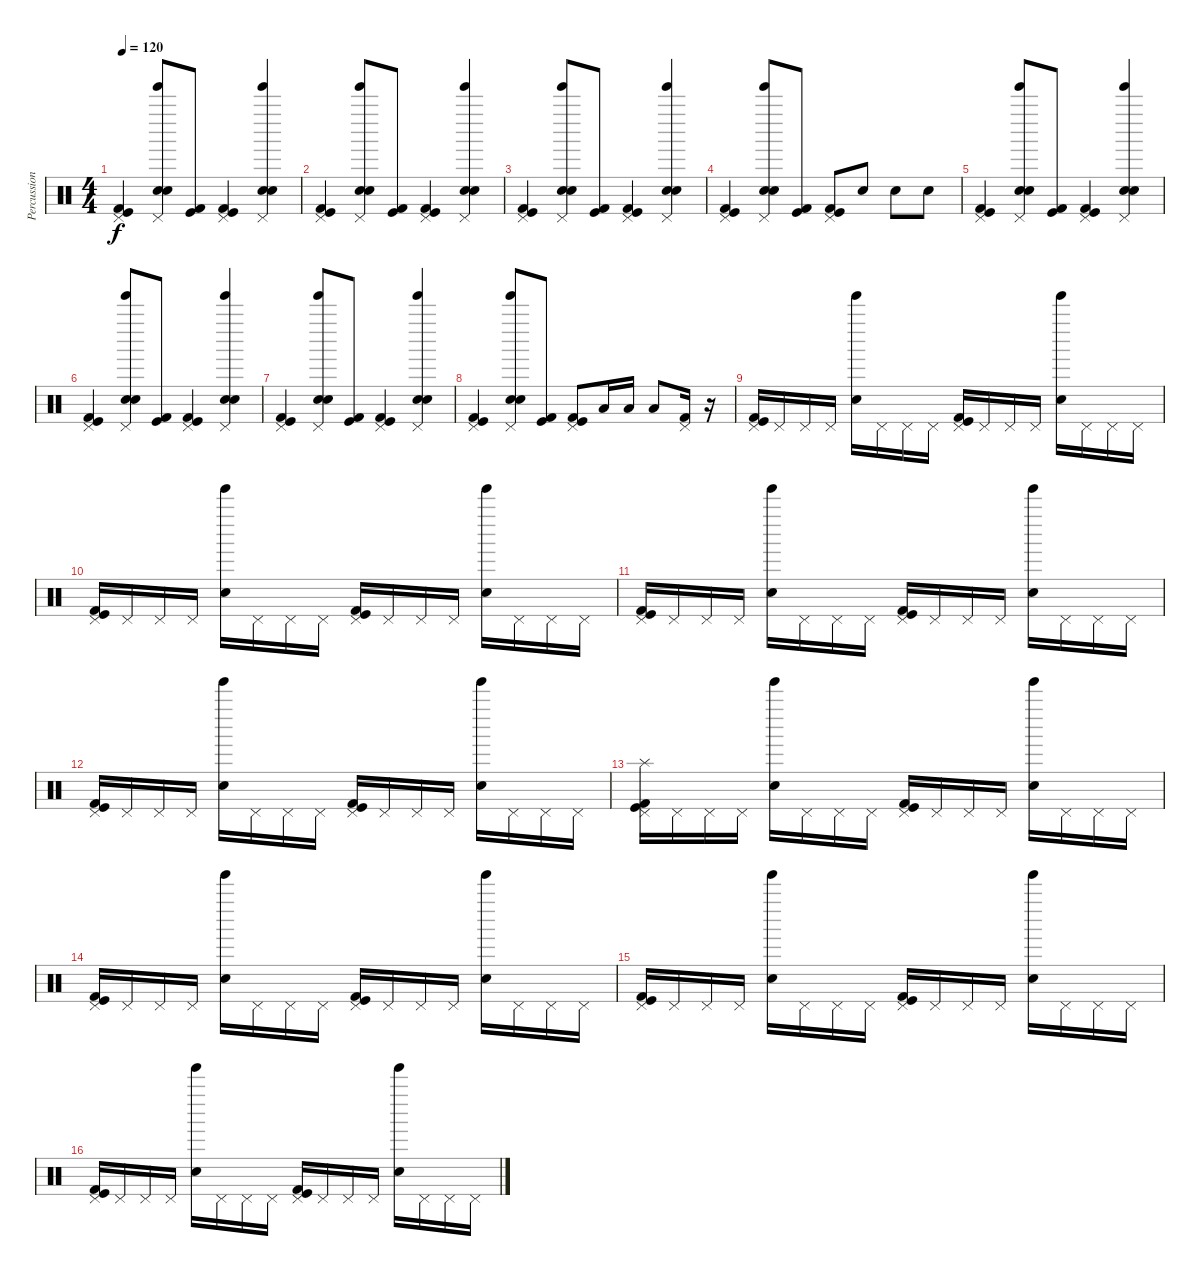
\track ("Percussion" "Percussion") {instrument percussion}
\staff {score}
\articulation defaults
\ts (4 4)
\tempo 120
\clef neutral
\ks c
("Pedal Hi-Hat (hit)" "Kick (hit)" "Kick (hit) 2").4{dy f} ("Tinkle Bell (hit)" "Pedal Hi-Hat (hit)" "Snare (hit) 2" "Electric Snare (hit)").8 ("Kick (hit)" "Kick (hit) 2").8 ("Pedal Hi-Hat (hit)" "Kick (hit)" "Kick (hit) 2").4 ("Tinkle Bell (hit)" "Pedal Hi-Hat (hit)" "Snare (hit) 2" "Electric Snare (hit)").4 |
("Pedal Hi-Hat (hit)" "Kick (hit)" "Kick (hit) 2").4 ("Tinkle Bell (hit)" "Pedal Hi-Hat (hit)" "Snare (hit) 2" "Electric Snare (hit)").8 ("Kick (hit)" "Kick (hit) 2").8 ("Pedal Hi-Hat (hit)" "Kick (hit)" "Kick (hit) 2").4 ("Tinkle Bell (hit)" "Pedal Hi-Hat (hit)" "Snare (hit) 2" "Electric Snare (hit)").4 |
("Pedal Hi-Hat (hit)" "Kick (hit)" "Kick (hit) 2").4 ("Tinkle Bell (hit)" "Pedal Hi-Hat (hit)" "Snare (hit) 2" "Electric Snare (hit)").8 ("Kick (hit)" "Kick (hit) 2").8 ("Pedal Hi-Hat (hit)" "Kick (hit)" "Kick (hit) 2").4 ("Tinkle Bell (hit)" "Pedal Hi-Hat (hit)" "Snare (hit) 2" "Electric Snare (hit)").4 |
("Pedal Hi-Hat (hit)" "Kick (hit)" "Kick (hit) 2").4 ("Tinkle Bell (hit)" "Pedal Hi-Hat (hit)" "Snare (hit) 2" "Electric Snare (hit)").8 ("Kick (hit)" "Kick (hit) 2").8 ("Pedal Hi-Hat (hit)" "Kick (hit)" "Kick (hit) 2").8 "Snare (hit) 2".8 "Snare (hit) 2".8 "Snare (hit) 2".8 |
("Pedal Hi-Hat (hit)" "Kick (hit)" "Kick (hit) 2").4 ("Tinkle Bell (hit)" "Pedal Hi-Hat (hit)" "Snare (hit) 2" "Electric Snare (hit)").8 ("Kick (hit)" "Kick (hit) 2").8 ("Pedal Hi-Hat (hit)" "Kick (hit)" "Kick (hit) 2").4 ("Tinkle Bell (hit)" "Pedal Hi-Hat (hit)" "Snare (hit) 2" "Electric Snare (hit)").4 |
("Pedal Hi-Hat (hit)" "Kick (hit)" "Kick (hit) 2").4 ("Tinkle Bell (hit)" "Pedal Hi-Hat (hit)" "Snare (hit) 2" "Electric Snare (hit)").8 ("Kick (hit)" "Kick (hit) 2").8 ("Pedal Hi-Hat (hit)" "Kick (hit)" "Kick (hit) 2").4 ("Tinkle Bell (hit)" "Pedal Hi-Hat (hit)" "Snare (hit) 2" "Electric Snare (hit)").4 |
("Pedal Hi-Hat (hit)" "Kick (hit)" "Kick (hit) 2").4 ("Tinkle Bell (hit)" "Pedal Hi-Hat (hit)" "Snare (hit) 2" "Electric Snare (hit)").8 ("Kick (hit)" "Kick (hit) 2").8 ("Pedal Hi-Hat (hit)" "Kick (hit)" "Kick (hit) 2").4 ("Tinkle Bell (hit)" "Pedal Hi-Hat (hit)" "Snare (hit) 2" "Electric Snare (hit)").4 |
("Pedal Hi-Hat (hit)" "Kick (hit)" "Kick (hit) 2").4 ("Tinkle Bell (hit)" "Pedal Hi-Hat (hit)" "Snare (hit) 2" "Electric Snare (hit)").8 ("Kick (hit)" "Kick (hit) 2").8 ("Pedal Hi-Hat (hit)" "Kick (hit)" "Kick (hit) 2").8 "Low Tom (hit)".16 "Low Tom (hit)".16 "Low Tom (hit)".8 ("Pedal Hi-Hat (hit)" "Kick (hit) 2").16 r.16 |
("Pedal Hi-Hat (hit)" "Kick (hit)" "Kick (hit) 2").16 "Pedal Hi-Hat (hit)".16 "Pedal Hi-Hat (hit)".16 "Pedal Hi-Hat (hit)".16 ("Tinkle Bell (hit)" "Snare (hit) 2").16 "Pedal Hi-Hat (hit)".16 "Pedal Hi-Hat (hit)".16 "Pedal Hi-Hat (hit)".16 ("Pedal Hi-Hat (hit)" "Kick (hit)" "Kick (hit) 2").16 "Pedal Hi-Hat (hit)".16 "Pedal Hi-Hat (hit)".16 "Pedal Hi-Hat (hit)".16 ("Tinkle Bell (hit)" "Snare (hit) 2").16 "Pedal Hi-Hat (hit)".16 "Pedal Hi-Hat (hit)".16 "Pedal Hi-Hat (hit)".16 |
("Pedal Hi-Hat (hit)" "Kick (hit)" "Kick (hit) 2").16 "Pedal Hi-Hat (hit)".16 "Pedal Hi-Hat (hit)".16 "Pedal Hi-Hat (hit)".16 ("Tinkle Bell (hit)" "Snare (hit) 2").16 "Pedal Hi-Hat (hit)".16 "Pedal Hi-Hat (hit)".16 "Pedal Hi-Hat (hit)".16 ("Pedal Hi-Hat (hit)" "Kick (hit)" "Kick (hit) 2").16 "Pedal Hi-Hat (hit)".16 "Pedal Hi-Hat (hit)".16 "Pedal Hi-Hat (hit)".16 ("Tinkle Bell (hit)" "Snare (hit) 2").16 "Pedal Hi-Hat (hit)".16 "Pedal Hi-Hat (hit)".16 "Pedal Hi-Hat (hit)".16 |
("Pedal Hi-Hat (hit)" "Kick (hit)" "Kick (hit) 2").16 "Pedal Hi-Hat (hit)".16 "Pedal Hi-Hat (hit)".16 "Pedal Hi-Hat (hit)".16 ("Tinkle Bell (hit)" "Snare (hit) 2").16 "Pedal Hi-Hat (hit)".16 "Pedal Hi-Hat (hit)".16 "Pedal Hi-Hat (hit)".16 ("Pedal Hi-Hat (hit)" "Kick (hit)" "Kick (hit) 2").16 "Pedal Hi-Hat (hit)".16 "Pedal Hi-Hat (hit)".16 "Pedal Hi-Hat (hit)".16 ("Tinkle Bell (hit)" "Snare (hit) 2").16 "Pedal Hi-Hat (hit)".16 "Pedal Hi-Hat (hit)".16 "Pedal Hi-Hat (hit)".16 |
("Pedal Hi-Hat (hit)" "Kick (hit)" "Kick (hit) 2").16 "Pedal Hi-Hat (hit)".16 "Pedal Hi-Hat (hit)".16 "Pedal Hi-Hat (hit)".16 ("Tinkle Bell (hit)" "Snare (hit) 2").16 "Pedal Hi-Hat (hit)".16 "Pedal Hi-Hat (hit)".16 "Pedal Hi-Hat (hit)".16 ("Pedal Hi-Hat (hit)" "Kick (hit)" "Kick (hit) 2").16 "Pedal Hi-Hat (hit)".16 "Pedal Hi-Hat (hit)".16 "Pedal Hi-Hat (hit)".16 ("Tinkle Bell (hit)" "Snare (hit) 2").16 "Pedal Hi-Hat (hit)".16 "Pedal Hi-Hat (hit)".16 "Pedal Hi-Hat (hit)".16 |
("Splash (hit)" "Pedal Hi-Hat (hit)" "Kick (hit)" "Kick (hit) 2").16 "Pedal Hi-Hat (hit)".16 "Pedal Hi-Hat (hit)".16 "Pedal Hi-Hat (hit)".16 ("Tinkle Bell (hit)" "Snare (hit) 2").16 "Pedal Hi-Hat (hit)".16 "Pedal Hi-Hat (hit)".16 "Pedal Hi-Hat (hit)".16 ("Pedal Hi-Hat (hit)" "Kick (hit)" "Kick (hit) 2").16 "Pedal Hi-Hat (hit)".16 "Pedal Hi-Hat (hit)".16 "Pedal Hi-Hat (hit)".16 ("Tinkle Bell (hit)" "Snare (hit) 2").16 "Pedal Hi-Hat (hit)".16 "Pedal Hi-Hat (hit)".16 "Pedal Hi-Hat (hit)".16 |
("Pedal Hi-Hat (hit)" "Kick (hit)" "Kick (hit) 2").16 "Pedal Hi-Hat (hit)".16 "Pedal Hi-Hat (hit)".16 "Pedal Hi-Hat (hit)".16 ("Tinkle Bell (hit)" "Snare (hit) 2").16 "Pedal Hi-Hat (hit)".16 "Pedal Hi-Hat (hit)".16 "Pedal Hi-Hat (hit)".16 ("Pedal Hi-Hat (hit)" "Kick (hit)" "Kick (hit) 2").16 "Pedal Hi-Hat (hit)".16 "Pedal Hi-Hat (hit)".16 "Pedal Hi-Hat (hit)".16 ("Tinkle Bell (hit)" "Snare (hit) 2").16 "Pedal Hi-Hat (hit)".16 "Pedal Hi-Hat (hit)".16 "Pedal Hi-Hat (hit)".16 |
("Pedal Hi-Hat (hit)" "Kick (hit)" "Kick (hit) 2").16 "Pedal Hi-Hat (hit)".16 "Pedal Hi-Hat (hit)".16 "Pedal Hi-Hat (hit)".16 ("Tinkle Bell (hit)" "Snare (hit) 2").16 "Pedal Hi-Hat (hit)".16 "Pedal Hi-Hat (hit)".16 "Pedal Hi-Hat (hit)".16 ("Pedal Hi-Hat (hit)" "Kick (hit)" "Kick (hit) 2").16 "Pedal Hi-Hat (hit)".16 "Pedal Hi-Hat (hit)".16 "Pedal Hi-Hat (hit)".16 ("Tinkle Bell (hit)" "Snare (hit) 2").16 "Pedal Hi-Hat (hit)".16 "Pedal Hi-Hat (hit)".16 "Pedal Hi-Hat (hit)".16 |
("Pedal Hi-Hat (hit)" "Kick (hit)" "Kick (hit) 2").16 "Pedal Hi-Hat (hit)".16 "Pedal Hi-Hat (hit)".16 "Pedal Hi-Hat (hit)".16 ("Tinkle Bell (hit)" "Snare (hit) 2").16 "Pedal Hi-Hat (hit)".16 "Pedal Hi-Hat (hit)".16 "Pedal Hi-Hat (hit)".16 ("Pedal Hi-Hat (hit)" "Kick (hit)" "Kick (hit) 2").16 "Pedal Hi-Hat (hit)".16 "Pedal Hi-Hat (hit)".16 "Pedal Hi-Hat (hit)".16 ("Tinkle Bell (hit)" "Snare (hit) 2").16 "Pedal Hi-Hat (hit)".16 "Pedal Hi-Hat (hit)".16 "Pedal Hi-Hat (hit)".16
